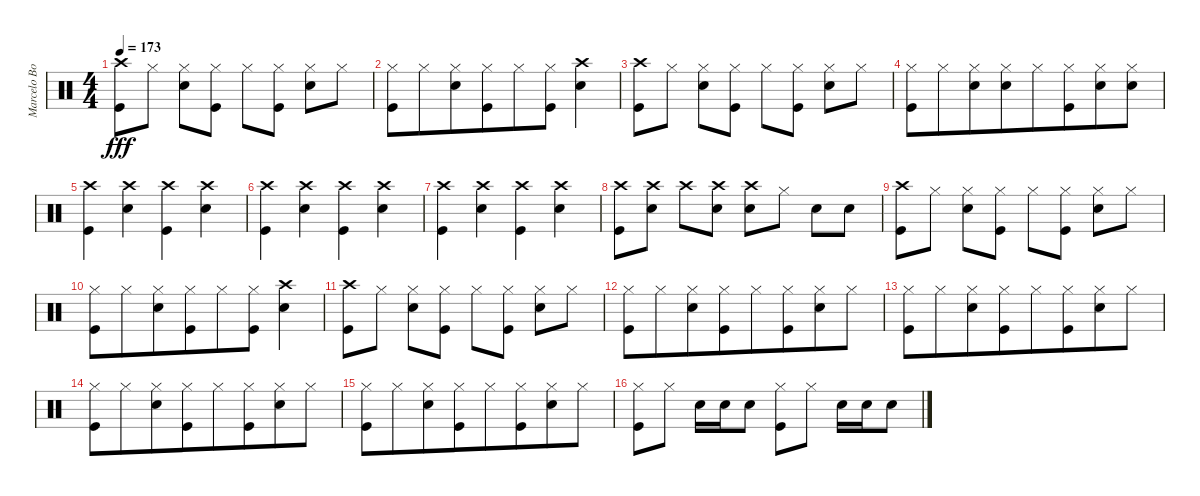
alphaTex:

\track ("Marcelo Bonfá (Bateria)" "Marcelo Bo") {instrument percussion}
\staff {score}
\articulation defaults
\ts (4 4)
\tempo 173
\clef neutral
\ks c
("Kick (hit)" "Crash high (hit)").8{dy fff} "Hi-Hat (closed)".8 ("Snare (hit) 2" "Hi-Hat (closed)").8 ("Kick (hit)" "Hi-Hat (closed)").8 "Hi-Hat (closed)".8 ("Hi-Hat (closed)" "Kick (hit)").8 ("Snare (hit) 2" "Hi-Hat (closed)").8 "Hi-Hat (closed)".8 |
("Kick (hit)" "Hi-Hat (closed)").8 "Hi-Hat (closed)".8{beam merge} ("Snare (hit) 2" "Hi-Hat (closed)").8 ("Kick (hit)" "Hi-Hat (closed)").8{beam merge} "Hi-Hat (closed)".8 ("Hi-Hat (closed)" "Kick (hit)").8{beam merge} ("Snare (hit) 2" "Crash high (hit)").4 |
("Kick (hit)" "Crash high (hit)").8 "Hi-Hat (closed)".8 ("Snare (hit) 2" "Hi-Hat (closed)").8 ("Kick (hit)" "Hi-Hat (closed)").8 "Hi-Hat (closed)".8 ("Hi-Hat (closed)" "Kick (hit)").8 ("Snare (hit) 2" "Hi-Hat (closed)").8 "Hi-Hat (closed)".8 |
("Kick (hit)" "Hi-Hat (closed)").8 "Hi-Hat (closed)".8{beam merge} ("Snare (hit) 2" "Hi-Hat (closed)").8 ("Hi-Hat (closed)" "Snare (hit) 2").8{beam merge} "Hi-Hat (closed)".8 ("Hi-Hat (closed)" "Kick (hit)").8{beam merge} ("Snare (hit) 2" "Hi-Hat (closed)").8 ("Hi-Hat (closed)" "Snare (hit) 2").8 |
("Kick (hit)" "Crash high (hit)").4 ("Crash high (hit)" "Snare (hit) 2").4 ("Kick (hit)" "Crash high (hit)").4 ("Snare (hit) 2" "Crash high (hit)").4 |
("Kick (hit)" "Crash high (hit)").4 ("Crash high (hit)" "Snare (hit) 2").4 ("Kick (hit)" "Crash high (hit)").4 ("Snare (hit) 2" "Crash high (hit)").4 |
("Kick (hit)" "Crash high (hit)").4 ("Crash high (hit)" "Snare (hit) 2").4 ("Kick (hit)" "Crash high (hit)").4 ("Snare (hit) 2" "Crash high (hit)").4 |
("Kick (hit)" "Crash high (hit)").8 ("Crash high (hit)" "Snare (hit) 2").8 "Crash high (hit)".8 ("Snare (hit) 2" "Crash high (hit)").8 ("Crash high (hit)" "Snare (hit) 2").8 "Hi-Hat (closed)".8 "Snare (hit) 2".8 "Snare (hit) 2".8 |
("Kick (hit)" "Crash high (hit)").8 "Hi-Hat (closed)".8 ("Snare (hit) 2" "Hi-Hat (closed)").8 ("Kick (hit)" "Hi-Hat (closed)").8 "Hi-Hat (closed)".8 ("Hi-Hat (closed)" "Kick (hit)").8 ("Snare (hit) 2" "Hi-Hat (closed)").8 "Hi-Hat (closed)".8 |
("Kick (hit)" "Hi-Hat (closed)").8 "Hi-Hat (closed)".8{beam merge} ("Snare (hit) 2" "Hi-Hat (closed)").8 ("Kick (hit)" "Hi-Hat (closed)").8{beam merge} "Hi-Hat (closed)".8 ("Hi-Hat (closed)" "Kick (hit)").8{beam merge} ("Snare (hit) 2" "Crash high (hit)").4 |
("Kick (hit)" "Crash high (hit)").8 "Hi-Hat (closed)".8 ("Snare (hit) 2" "Hi-Hat (closed)").8 ("Kick (hit)" "Hi-Hat (closed)").8 "Hi-Hat (closed)".8 ("Hi-Hat (closed)" "Kick (hit)").8 ("Snare (hit) 2" "Hi-Hat (closed)").8 "Hi-Hat (closed)".8 |
("Kick (hit)" "Hi-Hat (closed)").8 "Hi-Hat (closed)".8{beam merge} ("Snare (hit) 2" "Hi-Hat (closed)").8 ("Kick (hit)" "Hi-Hat (closed)").8{beam merge} "Hi-Hat (closed)".8 ("Hi-Hat (closed)" "Kick (hit)").8{beam merge} ("Snare (hit) 2" "Hi-Hat (closed)").8 "Hi-Hat (closed)".8 |
("Kick (hit)" "Hi-Hat (closed)").8 "Hi-Hat (closed)".8{beam merge} ("Snare (hit) 2" "Hi-Hat (closed)").8 ("Kick (hit)" "Hi-Hat (closed)").8{beam merge} "Hi-Hat (closed)".8 ("Hi-Hat (closed)" "Kick (hit)").8{beam merge} ("Snare (hit) 2" "Hi-Hat (closed)").8 "Hi-Hat (closed)".8 |
("Kick (hit)" "Hi-Hat (closed)").8 "Hi-Hat (closed)".8{beam merge} ("Snare (hit) 2" "Hi-Hat (closed)").8 ("Kick (hit)" "Hi-Hat (closed)").8{beam merge} "Hi-Hat (closed)".8 ("Hi-Hat (closed)" "Kick (hit)").8{beam merge} ("Snare (hit) 2" "Hi-Hat (closed)").8 "Hi-Hat (closed)".8 |
("Kick (hit)" "Hi-Hat (closed)").8 "Hi-Hat (closed)".8{beam merge} ("Snare (hit) 2" "Hi-Hat (closed)").8 ("Kick (hit)" "Hi-Hat (closed)").8{beam merge} "Hi-Hat (closed)".8 ("Hi-Hat (closed)" "Kick (hit)").8{beam merge} ("Snare (hit) 2" "Hi-Hat (closed)").8 "Hi-Hat (closed)".8 |
("Hi-Hat (closed)" "Kick (hit)").8 "Hi-Hat (closed)".8 "Snare (hit) 2".16 "Snare (hit) 2".16 "Snare (hit) 2".8 ("Hi-Hat (closed)" "Kick (hit)").8 "Hi-Hat (closed)".8 "Snare (hit) 2".16 "Snare (hit) 2".16 "Snare (hit) 2".8
